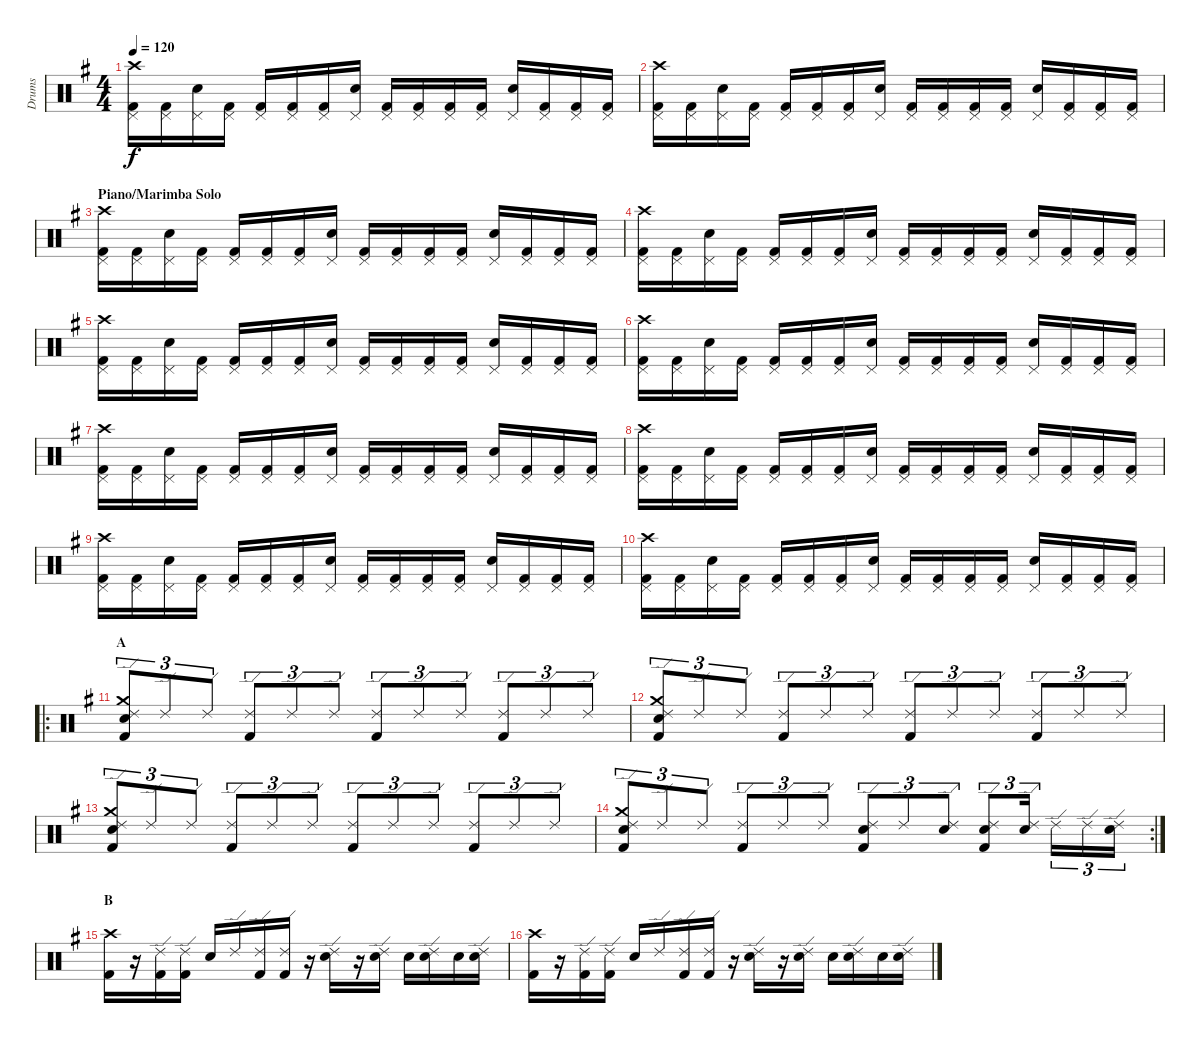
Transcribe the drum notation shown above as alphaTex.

\track ("Drums" "Drums") {instrument percussion}
\staff {score}
\articulation defaults
\ts (4 4)
\tempo 120
\clef neutral
\ks eminor
("Crash high (hit)" "Pedal Hi-Hat (hit)" "Kick (hit) 2").16{dy f} ("Pedal Hi-Hat (hit)" "Kick (hit) 2").16 ("Pedal Hi-Hat (hit)" "Electric Snare (hit)").16 ("Pedal Hi-Hat (hit)" "Kick (hit) 2").16 ("Pedal Hi-Hat (hit)" "Kick (hit) 2").16 ("Pedal Hi-Hat (hit)" "Kick (hit) 2").16 ("Pedal Hi-Hat (hit)" "Kick (hit) 2").16 ("Pedal Hi-Hat (hit)" "Electric Snare (hit)").16 ("Pedal Hi-Hat (hit)" "Kick (hit) 2").16 ("Pedal Hi-Hat (hit)" "Kick (hit) 2").16 ("Pedal Hi-Hat (hit)" "Kick (hit) 2").16 ("Pedal Hi-Hat (hit)" "Kick (hit) 2").16 ("Pedal Hi-Hat (hit)" "Electric Snare (hit)").16 ("Pedal Hi-Hat (hit)" "Kick (hit) 2").16 ("Pedal Hi-Hat (hit)" "Kick (hit) 2").16 ("Pedal Hi-Hat (hit)" "Kick (hit) 2").16 |
("Crash high (hit)" "Pedal Hi-Hat (hit)" "Kick (hit) 2").16 ("Pedal Hi-Hat (hit)" "Kick (hit) 2").16 ("Pedal Hi-Hat (hit)" "Electric Snare (hit)").16 ("Pedal Hi-Hat (hit)" "Kick (hit) 2").16 ("Pedal Hi-Hat (hit)" "Kick (hit) 2").16 ("Pedal Hi-Hat (hit)" "Kick (hit) 2").16 ("Pedal Hi-Hat (hit)" "Kick (hit) 2").16 ("Pedal Hi-Hat (hit)" "Electric Snare (hit)").16 ("Pedal Hi-Hat (hit)" "Kick (hit) 2").16 ("Pedal Hi-Hat (hit)" "Kick (hit) 2").16 ("Pedal Hi-Hat (hit)" "Kick (hit) 2").16 ("Pedal Hi-Hat (hit)" "Kick (hit) 2").16 ("Pedal Hi-Hat (hit)" "Electric Snare (hit)").16 ("Pedal Hi-Hat (hit)" "Kick (hit) 2").16 ("Pedal Hi-Hat (hit)" "Kick (hit) 2").16 ("Pedal Hi-Hat (hit)" "Kick (hit) 2").16 |
\section ("" "Piano/Marimba Solo")
("Crash high (hit)" "Pedal Hi-Hat (hit)" "Kick (hit) 2").16 ("Pedal Hi-Hat (hit)" "Kick (hit) 2").16 ("Pedal Hi-Hat (hit)" "Electric Snare (hit)").16 ("Pedal Hi-Hat (hit)" "Kick (hit) 2").16 ("Pedal Hi-Hat (hit)" "Kick (hit) 2").16 ("Pedal Hi-Hat (hit)" "Kick (hit) 2").16 ("Pedal Hi-Hat (hit)" "Kick (hit) 2").16 ("Pedal Hi-Hat (hit)" "Electric Snare (hit)").16 ("Pedal Hi-Hat (hit)" "Kick (hit) 2").16 ("Pedal Hi-Hat (hit)" "Kick (hit) 2").16 ("Pedal Hi-Hat (hit)" "Kick (hit) 2").16 ("Pedal Hi-Hat (hit)" "Kick (hit) 2").16 ("Pedal Hi-Hat (hit)" "Electric Snare (hit)").16 ("Pedal Hi-Hat (hit)" "Kick (hit) 2").16 ("Pedal Hi-Hat (hit)" "Kick (hit) 2").16 ("Pedal Hi-Hat (hit)" "Kick (hit) 2").16 |
("Crash high (hit)" "Pedal Hi-Hat (hit)" "Kick (hit) 2").16 ("Pedal Hi-Hat (hit)" "Kick (hit) 2").16 ("Pedal Hi-Hat (hit)" "Electric Snare (hit)").16 ("Pedal Hi-Hat (hit)" "Kick (hit) 2").16 ("Pedal Hi-Hat (hit)" "Kick (hit) 2").16 ("Pedal Hi-Hat (hit)" "Kick (hit) 2").16 ("Pedal Hi-Hat (hit)" "Kick (hit) 2").16 ("Pedal Hi-Hat (hit)" "Electric Snare (hit)").16 ("Pedal Hi-Hat (hit)" "Kick (hit) 2").16 ("Pedal Hi-Hat (hit)" "Kick (hit) 2").16 ("Pedal Hi-Hat (hit)" "Kick (hit) 2").16 ("Pedal Hi-Hat (hit)" "Kick (hit) 2").16 ("Pedal Hi-Hat (hit)" "Electric Snare (hit)").16 ("Pedal Hi-Hat (hit)" "Kick (hit) 2").16 ("Pedal Hi-Hat (hit)" "Kick (hit) 2").16 ("Pedal Hi-Hat (hit)" "Kick (hit) 2").16 |
("Crash high (hit)" "Pedal Hi-Hat (hit)" "Kick (hit) 2").16 ("Pedal Hi-Hat (hit)" "Kick (hit) 2").16 ("Pedal Hi-Hat (hit)" "Electric Snare (hit)").16 ("Pedal Hi-Hat (hit)" "Kick (hit) 2").16 ("Pedal Hi-Hat (hit)" "Kick (hit) 2").16 ("Pedal Hi-Hat (hit)" "Kick (hit) 2").16 ("Pedal Hi-Hat (hit)" "Kick (hit) 2").16 ("Pedal Hi-Hat (hit)" "Electric Snare (hit)").16 ("Pedal Hi-Hat (hit)" "Kick (hit) 2").16 ("Pedal Hi-Hat (hit)" "Kick (hit) 2").16 ("Pedal Hi-Hat (hit)" "Kick (hit) 2").16 ("Pedal Hi-Hat (hit)" "Kick (hit) 2").16 ("Pedal Hi-Hat (hit)" "Electric Snare (hit)").16 ("Pedal Hi-Hat (hit)" "Kick (hit) 2").16 ("Pedal Hi-Hat (hit)" "Kick (hit) 2").16 ("Pedal Hi-Hat (hit)" "Kick (hit) 2").16 |
("Crash high (hit)" "Pedal Hi-Hat (hit)" "Kick (hit) 2").16 ("Pedal Hi-Hat (hit)" "Kick (hit) 2").16 ("Pedal Hi-Hat (hit)" "Electric Snare (hit)").16 ("Pedal Hi-Hat (hit)" "Kick (hit) 2").16 ("Pedal Hi-Hat (hit)" "Kick (hit) 2").16 ("Pedal Hi-Hat (hit)" "Kick (hit) 2").16 ("Pedal Hi-Hat (hit)" "Kick (hit) 2").16 ("Pedal Hi-Hat (hit)" "Electric Snare (hit)").16 ("Pedal Hi-Hat (hit)" "Kick (hit) 2").16 ("Pedal Hi-Hat (hit)" "Kick (hit) 2").16 ("Pedal Hi-Hat (hit)" "Kick (hit) 2").16 ("Pedal Hi-Hat (hit)" "Kick (hit) 2").16 ("Pedal Hi-Hat (hit)" "Electric Snare (hit)").16 ("Pedal Hi-Hat (hit)" "Kick (hit) 2").16 ("Pedal Hi-Hat (hit)" "Kick (hit) 2").16 ("Pedal Hi-Hat (hit)" "Kick (hit) 2").16 |
("Crash high (hit)" "Pedal Hi-Hat (hit)" "Kick (hit) 2").16 ("Pedal Hi-Hat (hit)" "Kick (hit) 2").16 ("Pedal Hi-Hat (hit)" "Electric Snare (hit)").16 ("Pedal Hi-Hat (hit)" "Kick (hit) 2").16 ("Pedal Hi-Hat (hit)" "Kick (hit) 2").16 ("Pedal Hi-Hat (hit)" "Kick (hit) 2").16 ("Pedal Hi-Hat (hit)" "Kick (hit) 2").16 ("Pedal Hi-Hat (hit)" "Electric Snare (hit)").16 ("Pedal Hi-Hat (hit)" "Kick (hit) 2").16 ("Pedal Hi-Hat (hit)" "Kick (hit) 2").16 ("Pedal Hi-Hat (hit)" "Kick (hit) 2").16 ("Pedal Hi-Hat (hit)" "Kick (hit) 2").16 ("Pedal Hi-Hat (hit)" "Electric Snare (hit)").16 ("Pedal Hi-Hat (hit)" "Kick (hit) 2").16 ("Pedal Hi-Hat (hit)" "Kick (hit) 2").16 ("Pedal Hi-Hat (hit)" "Kick (hit) 2").16 |
("Crash high (hit)" "Pedal Hi-Hat (hit)" "Kick (hit) 2").16 ("Pedal Hi-Hat (hit)" "Kick (hit) 2").16 ("Pedal Hi-Hat (hit)" "Electric Snare (hit)").16 ("Pedal Hi-Hat (hit)" "Kick (hit) 2").16 ("Pedal Hi-Hat (hit)" "Kick (hit) 2").16 ("Pedal Hi-Hat (hit)" "Kick (hit) 2").16 ("Pedal Hi-Hat (hit)" "Kick (hit) 2").16 ("Pedal Hi-Hat (hit)" "Electric Snare (hit)").16 ("Pedal Hi-Hat (hit)" "Kick (hit) 2").16 ("Pedal Hi-Hat (hit)" "Kick (hit) 2").16 ("Pedal Hi-Hat (hit)" "Kick (hit) 2").16 ("Pedal Hi-Hat (hit)" "Kick (hit) 2").16 ("Pedal Hi-Hat (hit)" "Electric Snare (hit)").16 ("Pedal Hi-Hat (hit)" "Kick (hit) 2").16 ("Pedal Hi-Hat (hit)" "Kick (hit) 2").16 ("Pedal Hi-Hat (hit)" "Kick (hit) 2").16 |
("Crash high (hit)" "Pedal Hi-Hat (hit)" "Kick (hit) 2").16 ("Pedal Hi-Hat (hit)" "Kick (hit) 2").16 ("Pedal Hi-Hat (hit)" "Electric Snare (hit)").16 ("Pedal Hi-Hat (hit)" "Kick (hit) 2").16 ("Pedal Hi-Hat (hit)" "Kick (hit) 2").16 ("Pedal Hi-Hat (hit)" "Kick (hit) 2").16 ("Pedal Hi-Hat (hit)" "Kick (hit) 2").16 ("Pedal Hi-Hat (hit)" "Electric Snare (hit)").16 ("Pedal Hi-Hat (hit)" "Kick (hit) 2").16 ("Pedal Hi-Hat (hit)" "Kick (hit) 2").16 ("Pedal Hi-Hat (hit)" "Kick (hit) 2").16 ("Pedal Hi-Hat (hit)" "Kick (hit) 2").16 ("Pedal Hi-Hat (hit)" "Electric Snare (hit)").16 ("Pedal Hi-Hat (hit)" "Kick (hit) 2").16 ("Pedal Hi-Hat (hit)" "Kick (hit) 2").16 ("Pedal Hi-Hat (hit)" "Kick (hit) 2").16 |
("Crash high (hit)" "Pedal Hi-Hat (hit)" "Kick (hit) 2").16 ("Pedal Hi-Hat (hit)" "Kick (hit) 2").16 ("Pedal Hi-Hat (hit)" "Electric Snare (hit)").16 ("Pedal Hi-Hat (hit)" "Kick (hit) 2").16 ("Pedal Hi-Hat (hit)" "Kick (hit) 2").16 ("Pedal Hi-Hat (hit)" "Kick (hit) 2").16 ("Pedal Hi-Hat (hit)" "Kick (hit) 2").16 ("Pedal Hi-Hat (hit)" "Electric Snare (hit)").16 ("Pedal Hi-Hat (hit)" "Kick (hit) 2").16 ("Pedal Hi-Hat (hit)" "Kick (hit) 2").16 ("Pedal Hi-Hat (hit)" "Kick (hit) 2").16 ("Pedal Hi-Hat (hit)" "Kick (hit) 2").16 ("Pedal Hi-Hat (hit)" "Electric Snare (hit)").16 ("Pedal Hi-Hat (hit)" "Kick (hit) 2").16 ("Pedal Hi-Hat (hit)" "Kick (hit) 2").16 ("Pedal Hi-Hat (hit)" "Kick (hit) 2").16 |
\ro
\section ("" "A")
("Crash medium (hit)" "Ride (edge) 2" "Electric Snare (hit)" "Kick (hit) 2").8{tu (3 2)} "Ride (edge) 2".8{tu (3 2)} "Ride (edge) 2".8{tu (3 2)} ("Ride (edge) 2" "Kick (hit) 2").8{tu (3 2)} "Ride (edge) 2".8{tu (3 2)} "Ride (edge) 2".8{tu (3 2)} ("Ride (edge) 2" "Kick (hit) 2").8{tu (3 2)} "Ride (edge) 2".8{tu (3 2)} "Ride (edge) 2".8{tu (3 2)} ("Ride (edge) 2" "Kick (hit) 2").8{tu (3 2)} "Ride (edge) 2".8{tu (3 2)} "Ride (edge) 2".8{tu (3 2)} |
("Crash medium (hit)" "Ride (edge) 2" "Electric Snare (hit)" "Kick (hit) 2").8{tu (3 2)} "Ride (edge) 2".8{tu (3 2)} "Ride (edge) 2".8{tu (3 2)} ("Ride (edge) 2" "Kick (hit) 2").8{tu (3 2)} "Ride (edge) 2".8{tu (3 2)} "Ride (edge) 2".8{tu (3 2)} ("Ride (edge) 2" "Kick (hit) 2").8{tu (3 2)} "Ride (edge) 2".8{tu (3 2)} "Ride (edge) 2".8{tu (3 2)} ("Ride (edge) 2" "Kick (hit) 2").8{tu (3 2)} "Ride (edge) 2".8{tu (3 2)} "Ride (edge) 2".8{tu (3 2)} |
("Crash medium (hit)" "Ride (edge) 2" "Electric Snare (hit)" "Kick (hit) 2").8{tu (3 2)} "Ride (edge) 2".8{tu (3 2)} "Ride (edge) 2".8{tu (3 2)} ("Ride (edge) 2" "Kick (hit) 2").8{tu (3 2)} "Ride (edge) 2".8{tu (3 2)} "Ride (edge) 2".8{tu (3 2)} ("Ride (edge) 2" "Kick (hit) 2").8{tu (3 2)} "Ride (edge) 2".8{tu (3 2)} "Ride (edge) 2".8{tu (3 2)} ("Ride (edge) 2" "Kick (hit) 2").8{tu (3 2)} "Ride (edge) 2".8{tu (3 2)} "Ride (edge) 2".8{tu (3 2)} |
\rc 2
("Crash medium (hit)" "Ride (edge) 2" "Electric Snare (hit)" "Kick (hit) 2").8{tu (3 2)} "Ride (edge) 2".8{tu (3 2)} "Ride (edge) 2".8{tu (3 2)} ("Ride (edge) 2" "Kick (hit) 2").8{tu (3 2)} "Ride (edge) 2".8{tu (3 2)} "Ride (edge) 2".8{tu (3 2)} ("Ride (edge) 2" "Electric Snare (hit)" "Kick (hit) 2").8{tu (3 2)} "Ride (edge) 2".8{tu (3 2)} ("Ride (edge) 2" "Electric Snare (hit)").8{tu (3 2)} ("Ride (edge) 2" "Electric Snare (hit)" "Kick (hit) 2").8{tu (3 2)} ("Ride (edge) 2" "Electric Snare (hit)").16{tu (3 2)} "Ride (edge) 2".16{tu (3 2)} "Ride (edge) 2".16{tu (3 2)} ("Ride (edge) 2" "Electric Snare (hit)").16{tu (3 2)} |
\section ("" "B")
("Crash high (hit)" "Kick (hit) 2").16 r.16 ("Ride (edge) 2" "Kick (hit) 2").16 ("Ride (edge) 2" "Kick (hit) 2").16 "Electric Snare (hit)".16 "Ride (edge) 2".16 ("Ride (edge) 2" "Kick (hit) 2").16 ("Ride (edge) 2" "Kick (hit) 2").16 r.16 ("Ride (edge) 2" "Electric Snare (hit)").16 r.16 ("Ride (edge) 2" "Electric Snare (hit)").16 "Electric Snare (hit)".16 ("Ride (edge) 2" "Electric Snare (hit)").16 "Electric Snare (hit)".16 ("Ride (edge) 2" "Electric Snare (hit)").16 |
("Crash high (hit)" "Kick (hit) 2").16 r.16 ("Ride (edge) 2" "Kick (hit) 2").16 ("Ride (edge) 2" "Kick (hit) 2").16 "Electric Snare (hit)".16 "Ride (edge) 2".16 ("Ride (edge) 2" "Kick (hit) 2").16 ("Ride (edge) 2" "Kick (hit) 2").16 r.16 ("Ride (edge) 2" "Electric Snare (hit)").16 r.16 ("Ride (edge) 2" "Electric Snare (hit)").16 "Electric Snare (hit)".16 ("Ride (edge) 2" "Electric Snare (hit)").16 "Electric Snare (hit)".16 ("Ride (edge) 2" "Electric Snare (hit)").16
